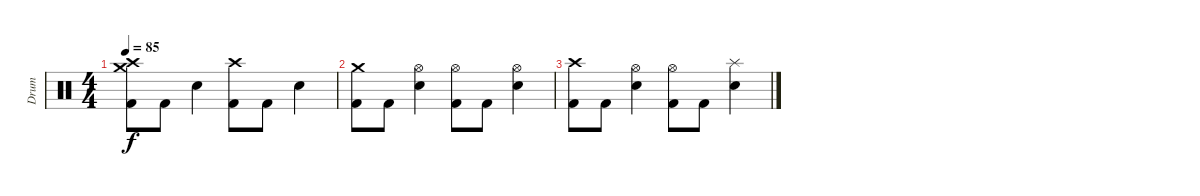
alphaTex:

\track ("Drum" "Drum") {instrument percussion}
\staff {score}
\articulation defaults
\ts (4 4)
\tempo 85
\clef neutral
\ks c
("Crash medium (hit)" "Crash high (hit)" "Kick (hit) 2").8{dy f} "Kick (hit) 2".8 "Electric Snare (hit)".4 ("Crash high (hit)" "Kick (hit) 2").8 "Kick (hit) 2".8 "Electric Snare (hit)".4 |
("Crash medium (hit)" "Kick (hit) 2").8 "Kick (hit) 2".8 ("Hi-Hat (open)" "Electric Snare (hit)").4 ("Hi-Hat (open)" "Kick (hit) 2").8 "Kick (hit) 2".8 ("Hi-Hat (open)" "Electric Snare (hit)").4 |
("Crash high (hit)" "Kick (hit) 2").8 "Kick (hit) 2".8 ("Hi-Hat (open)" "Electric Snare (hit)").4 ("Hi-Hat (open)" "Kick (hit) 2").8 "Kick (hit) 2".8 ("Splash (hit)" "Electric Snare (hit)").4
